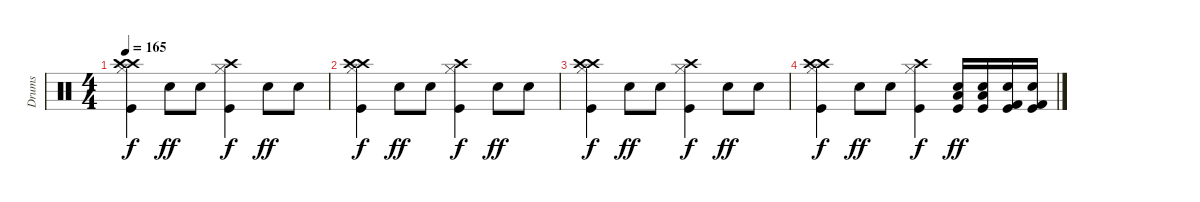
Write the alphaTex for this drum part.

\track ("Drums" "Drums") {instrument percussion}
\staff {score}
\articulation defaults
\ts (4 4)
\tempo 165
\clef neutral
\ks c
("Crash high (hit)" "Kick (hit)" "Hi-Hat (closed)" "Crash high (hit)").4{dy f} "Snare (hit) 2".8{dy ff} "Snare (hit) 2".8 ("Crash high (hit)" "Kick (hit)" "Hi-Hat (closed)").4{dy f} "Snare (hit) 2".8{dy ff} "Snare (hit) 2".8 |
("Crash high (hit)" "Kick (hit)" "Hi-Hat (closed)" "Crash high (hit)").4{dy f} "Snare (hit) 2".8{dy ff} "Snare (hit) 2".8 ("Crash high (hit)" "Kick (hit)" "Hi-Hat (closed)").4{dy f} "Snare (hit) 2".8{dy ff} "Snare (hit) 2".8 |
("Crash high (hit)" "Kick (hit)" "Hi-Hat (closed)" "Crash high (hit)").4{dy f} "Snare (hit) 2".8{dy ff} "Snare (hit) 2".8 ("Crash high (hit)" "Kick (hit)" "Hi-Hat (closed)").4{dy f} "Snare (hit) 2".8{dy ff} "Snare (hit) 2".8 |
("Crash high (hit)" "Kick (hit)" "Hi-Hat (closed)" "Crash high (hit)").4{dy f} "Snare (hit) 2".8{dy ff} "Snare (hit) 2".8 ("Crash high (hit)" "Kick (hit)" "Hi-Hat (closed)").4{dy f} ("Snare (hit) 2" "Low Floor Tom (hit)" "Kick (hit)").16{dy ff} ("Snare (hit) 2" "Low Floor Tom (hit)" "Kick (hit)").16 ("Snare (hit) 2" "Kick (hit) 2" "Kick (hit)").16 ("Snare (hit) 2" "Kick (hit) 2" "Kick (hit)").16
